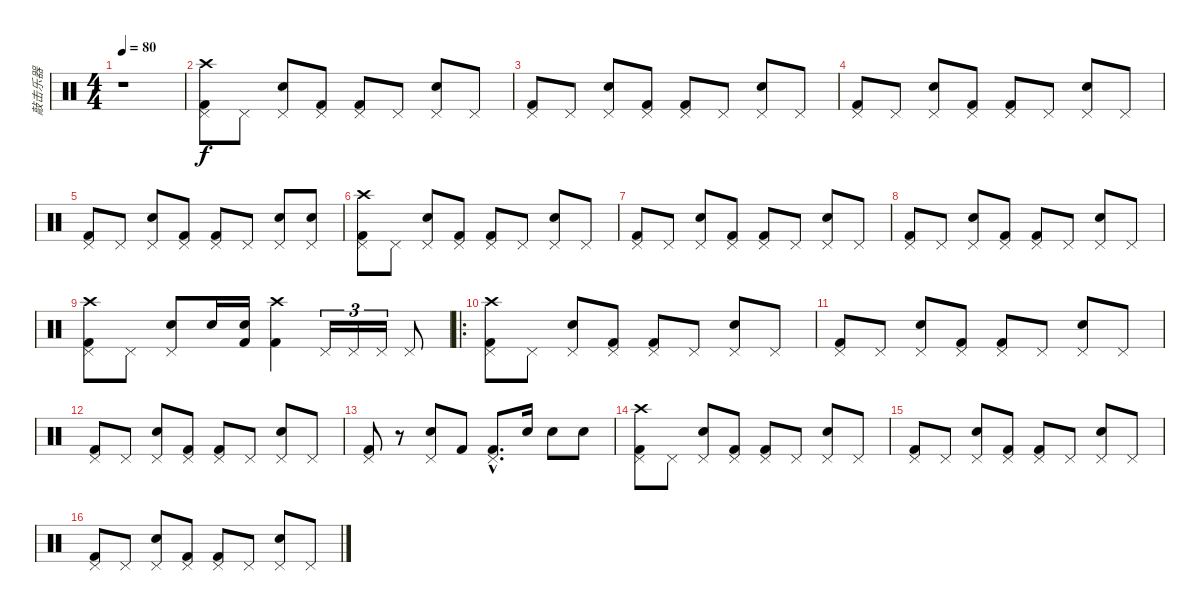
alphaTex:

\track ("敲击乐器" "敲击乐器") {instrument percussion}
\staff {score}
\articulation defaults
\ts (4 4)
\tempo 80
\clef neutral
\ks c
r.1{dy f} |
("Crash high (hit)" "Pedal Hi-Hat (hit)" "Kick (hit) 2").8 "Pedal Hi-Hat (hit)".8 ("Pedal Hi-Hat (hit)" "Metronome (bell)").8 ("Pedal Hi-Hat (hit)" "Kick (hit) 2").8 ("Pedal Hi-Hat (hit)" "Kick (hit) 2").8 "Pedal Hi-Hat (hit)".8 ("Pedal Hi-Hat (hit)" "Metronome (bell)").8 "Pedal Hi-Hat (hit)".8 |
("Pedal Hi-Hat (hit)" "Kick (hit) 2").8 "Pedal Hi-Hat (hit)".8 ("Pedal Hi-Hat (hit)" "Metronome (bell)").8 ("Pedal Hi-Hat (hit)" "Kick (hit) 2").8 ("Pedal Hi-Hat (hit)" "Kick (hit) 2").8 "Pedal Hi-Hat (hit)".8 ("Pedal Hi-Hat (hit)" "Metronome (bell)").8 "Pedal Hi-Hat (hit)".8 |
("Pedal Hi-Hat (hit)" "Kick (hit) 2").8 "Pedal Hi-Hat (hit)".8 ("Pedal Hi-Hat (hit)" "Metronome (bell)").8 ("Pedal Hi-Hat (hit)" "Kick (hit) 2").8 ("Pedal Hi-Hat (hit)" "Kick (hit) 2").8 "Pedal Hi-Hat (hit)".8 ("Pedal Hi-Hat (hit)" "Metronome (bell)").8 "Pedal Hi-Hat (hit)".8 |
("Pedal Hi-Hat (hit)" "Kick (hit) 2").8 "Pedal Hi-Hat (hit)".8 ("Pedal Hi-Hat (hit)" "Metronome (bell)").8 ("Pedal Hi-Hat (hit)" "Kick (hit) 2").8 ("Pedal Hi-Hat (hit)" "Kick (hit) 2").8 "Pedal Hi-Hat (hit)".8 ("Pedal Hi-Hat (hit)" "Metronome (bell)").8 ("Pedal Hi-Hat (hit)" "Metronome (bell)").8 |
("Crash high (hit)" "Pedal Hi-Hat (hit)" "Kick (hit) 2").8 "Pedal Hi-Hat (hit)".8 ("Pedal Hi-Hat (hit)" "Metronome (bell)").8 ("Pedal Hi-Hat (hit)" "Kick (hit) 2").8 ("Pedal Hi-Hat (hit)" "Kick (hit) 2").8 "Pedal Hi-Hat (hit)".8 ("Pedal Hi-Hat (hit)" "Metronome (bell)").8 "Pedal Hi-Hat (hit)".8 |
("Pedal Hi-Hat (hit)" "Kick (hit) 2").8 "Pedal Hi-Hat (hit)".8 ("Pedal Hi-Hat (hit)" "Metronome (bell)").8 ("Pedal Hi-Hat (hit)" "Kick (hit) 2").8 ("Pedal Hi-Hat (hit)" "Kick (hit) 2").8 "Pedal Hi-Hat (hit)".8 ("Pedal Hi-Hat (hit)" "Metronome (bell)").8 "Pedal Hi-Hat (hit)".8 |
("Pedal Hi-Hat (hit)" "Kick (hit) 2").8 "Pedal Hi-Hat (hit)".8 ("Pedal Hi-Hat (hit)" "Metronome (bell)").8 ("Pedal Hi-Hat (hit)" "Kick (hit) 2").8 ("Pedal Hi-Hat (hit)" "Kick (hit) 2").8 "Pedal Hi-Hat (hit)".8 ("Pedal Hi-Hat (hit)" "Metronome (bell)").8 "Pedal Hi-Hat (hit)".8 |
("Crash high (hit)" "Pedal Hi-Hat (hit)" "Kick (hit) 2").8 "Pedal Hi-Hat (hit)".8 ("Pedal Hi-Hat (hit)" "Metronome (bell)").8 "Metronome (bell)".16 ("Metronome (bell)" "Kick (hit) 2").16 ("Crash high (hit)" "Kick (hit) 2").4 "Pedal Hi-Hat (hit)".16{tu (3 2)} "Pedal Hi-Hat (hit)".16{tu (3 2)} "Pedal Hi-Hat (hit)".16{tu (3 2)} "Pedal Hi-Hat (hit)".8 |
\ro
("Crash high (hit)" "Pedal Hi-Hat (hit)" "Kick (hit) 2").8 "Pedal Hi-Hat (hit)".8 ("Pedal Hi-Hat (hit)" "Metronome (bell)").8 ("Pedal Hi-Hat (hit)" "Kick (hit) 2").8 ("Pedal Hi-Hat (hit)" "Kick (hit) 2").8 "Pedal Hi-Hat (hit)".8 ("Pedal Hi-Hat (hit)" "Metronome (bell)").8 "Pedal Hi-Hat (hit)".8 |
("Pedal Hi-Hat (hit)" "Kick (hit) 2").8 "Pedal Hi-Hat (hit)".8 ("Pedal Hi-Hat (hit)" "Metronome (bell)").8 ("Pedal Hi-Hat (hit)" "Kick (hit) 2").8 ("Pedal Hi-Hat (hit)" "Kick (hit) 2").8 "Pedal Hi-Hat (hit)".8 ("Pedal Hi-Hat (hit)" "Metronome (bell)").8 "Pedal Hi-Hat (hit)".8 |
("Pedal Hi-Hat (hit)" "Kick (hit) 2").8 "Pedal Hi-Hat (hit)".8 ("Pedal Hi-Hat (hit)" "Metronome (bell)").8 ("Pedal Hi-Hat (hit)" "Kick (hit) 2").8 ("Pedal Hi-Hat (hit)" "Kick (hit) 2").8 "Pedal Hi-Hat (hit)".8 ("Pedal Hi-Hat (hit)" "Metronome (bell)").8 "Pedal Hi-Hat (hit)".8 |
("Pedal Hi-Hat (hit)" "Kick (hit) 2").8 r.8 ("Pedal Hi-Hat (hit)" "Metronome (bell)").8 "Kick (hit) 2".8 ("Pedal Hi-Hat (hit)"{hac} "Kick (hit) 2"{hac}).8{d} "Metronome (bell)".16 "Metronome (bell)".8 "Metronome (bell)".8 |
("Crash high (hit)" "Pedal Hi-Hat (hit)" "Kick (hit) 2").8 "Pedal Hi-Hat (hit)".8 ("Pedal Hi-Hat (hit)" "Metronome (bell)").8 ("Pedal Hi-Hat (hit)" "Kick (hit) 2").8 ("Pedal Hi-Hat (hit)" "Kick (hit) 2").8 "Pedal Hi-Hat (hit)".8 ("Pedal Hi-Hat (hit)" "Metronome (bell)").8 "Pedal Hi-Hat (hit)".8 |
("Pedal Hi-Hat (hit)" "Kick (hit) 2").8 "Pedal Hi-Hat (hit)".8 ("Pedal Hi-Hat (hit)" "Metronome (bell)").8 ("Pedal Hi-Hat (hit)" "Kick (hit) 2").8 ("Pedal Hi-Hat (hit)" "Kick (hit) 2").8 "Pedal Hi-Hat (hit)".8 ("Pedal Hi-Hat (hit)" "Metronome (bell)").8 "Pedal Hi-Hat (hit)".8 |
("Pedal Hi-Hat (hit)" "Kick (hit) 2").8 "Pedal Hi-Hat (hit)".8 ("Pedal Hi-Hat (hit)" "Metronome (bell)").8 ("Pedal Hi-Hat (hit)" "Kick (hit) 2").8 ("Pedal Hi-Hat (hit)" "Kick (hit) 2").8 "Pedal Hi-Hat (hit)".8 ("Pedal Hi-Hat (hit)" "Metronome (bell)").8 "Pedal Hi-Hat (hit)".8
